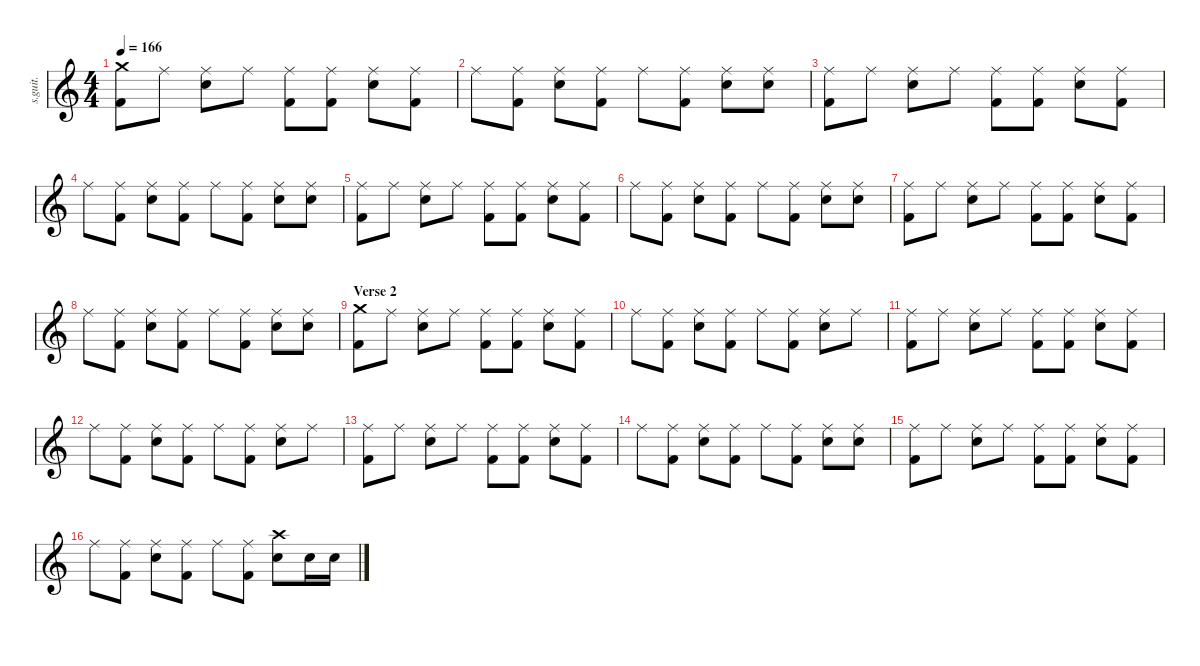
\defaultSystemsLayout 4
\hideDynamics
\bracketExtendMode nobrackets
\track ("Phil Selway" "s.guit.") {instrument percussion}
\staff {score}
\articulation defaults
\ts (4 4)
\tempo 166
\clef g2
\ks c
("Crash medium (hit)" "Kick (hit) 2").8{lyrics (0 "") lyrics (1 "") lyrics (2 "") lyrics (3 "") lyrics (4 "") dy mf} "Ride (middle)".8{lyrics (0 "") lyrics (1 "") lyrics (2 "") lyrics (3 "") lyrics (4 "") dy f} ("Ride (middle)" "Electric Snare (hit)").8{lyrics (0 "") lyrics (1 "") lyrics (2 "") lyrics (3 "") lyrics (4 "")} "Ride (middle)".8{lyrics (0 "") lyrics (1 "") lyrics (2 "") lyrics (3 "") lyrics (4 "")} ("Ride (middle)" "Kick (hit) 2").8{lyrics (0 "") lyrics (1 "") lyrics (2 "") lyrics (3 "") lyrics (4 "")} ("Ride (middle)" "Kick (hit) 2").8{lyrics (0 "") lyrics (1 "") lyrics (2 "") lyrics (3 "") lyrics (4 "")} ("Ride (middle)" "Electric Snare (hit)").8{lyrics (0 "") lyrics (1 "") lyrics (2 "") lyrics (3 "") lyrics (4 "")} ("Ride (middle)" "Kick (hit) 2").8{lyrics (0 "") lyrics (1 "") lyrics (2 "") lyrics (3 "") lyrics (4 "")} |
"Ride (middle)".8{lyrics (0 "") lyrics (1 "") lyrics (2 "") lyrics (3 "") lyrics (4 "")} ("Ride (middle)" "Kick (hit) 2").8{lyrics (0 "") lyrics (1 "") lyrics (2 "") lyrics (3 "") lyrics (4 "")} ("Ride (middle)" "Electric Snare (hit)").8{lyrics (0 "") lyrics (1 "") lyrics (2 "") lyrics (3 "") lyrics (4 "")} ("Ride (middle)" "Kick (hit) 2").8{lyrics (0 "") lyrics (1 "") lyrics (2 "") lyrics (3 "") lyrics (4 "")} "Ride (middle)".8{lyrics (0 "") lyrics (1 "") lyrics (2 "") lyrics (3 "") lyrics (4 "")} ("Ride (middle)" "Kick (hit) 2").8{lyrics (0 "") lyrics (1 "") lyrics (2 "") lyrics (3 "") lyrics (4 "")} ("Ride (middle)" "Electric Snare (hit)").8{lyrics (0 "") lyrics (1 "") lyrics (2 "") lyrics (3 "") lyrics (4 "")} ("Ride (middle)" "Electric Snare (hit)").8{lyrics (0 "") lyrics (1 "") lyrics (2 "") lyrics (3 "") lyrics (4 "")} |
("Ride (middle)" "Kick (hit) 2").8{lyrics (0 "") lyrics (1 "") lyrics (2 "") lyrics (3 "") lyrics (4 "")} "Ride (middle)".8{lyrics (0 "") lyrics (1 "") lyrics (2 "") lyrics (3 "") lyrics (4 "")} ("Ride (middle)" "Electric Snare (hit)").8{lyrics (0 "") lyrics (1 "") lyrics (2 "") lyrics (3 "") lyrics (4 "")} "Ride (middle)".8{lyrics (0 "") lyrics (1 "") lyrics (2 "") lyrics (3 "") lyrics (4 "")} ("Ride (middle)" "Kick (hit) 2").8{lyrics (0 "") lyrics (1 "") lyrics (2 "") lyrics (3 "") lyrics (4 "")} ("Ride (middle)" "Kick (hit) 2").8{lyrics (0 "") lyrics (1 "") lyrics (2 "") lyrics (3 "") lyrics (4 "")} ("Ride (middle)" "Electric Snare (hit)").8{lyrics (0 "") lyrics (1 "") lyrics (2 "") lyrics (3 "") lyrics (4 "")} ("Ride (middle)" "Kick (hit) 2").8{lyrics (0 "") lyrics (1 "") lyrics (2 "") lyrics (3 "") lyrics (4 "")} |
"Ride (middle)".8{lyrics (0 "") lyrics (1 "") lyrics (2 "") lyrics (3 "") lyrics (4 "")} ("Ride (middle)" "Kick (hit) 2").8{lyrics (0 "") lyrics (1 "") lyrics (2 "") lyrics (3 "") lyrics (4 "")} ("Ride (middle)" "Electric Snare (hit)").8{lyrics (0 "") lyrics (1 "") lyrics (2 "") lyrics (3 "") lyrics (4 "")} ("Ride (middle)" "Kick (hit) 2").8{lyrics (0 "") lyrics (1 "") lyrics (2 "") lyrics (3 "") lyrics (4 "")} "Ride (middle)".8{lyrics (0 "") lyrics (1 "") lyrics (2 "") lyrics (3 "") lyrics (4 "")} ("Ride (middle)" "Kick (hit) 2").8{lyrics (0 "") lyrics (1 "") lyrics (2 "") lyrics (3 "") lyrics (4 "")} ("Ride (middle)" "Electric Snare (hit)").8{lyrics (0 "") lyrics (1 "") lyrics (2 "") lyrics (3 "") lyrics (4 "")} ("Ride (middle)" "Electric Snare (hit)").8{lyrics (0 "") lyrics (1 "") lyrics (2 "") lyrics (3 "") lyrics (4 "")} |
("Ride (middle)" "Kick (hit) 2").8{lyrics (0 "") lyrics (1 "") lyrics (2 "") lyrics (3 "") lyrics (4 "")} "Ride (middle)".8{lyrics (0 "") lyrics (1 "") lyrics (2 "") lyrics (3 "") lyrics (4 "")} ("Ride (middle)" "Electric Snare (hit)").8{lyrics (0 "") lyrics (1 "") lyrics (2 "") lyrics (3 "") lyrics (4 "")} "Ride (middle)".8{lyrics (0 "") lyrics (1 "") lyrics (2 "") lyrics (3 "") lyrics (4 "")} ("Ride (middle)" "Kick (hit) 2").8{lyrics (0 "") lyrics (1 "") lyrics (2 "") lyrics (3 "") lyrics (4 "")} ("Ride (middle)" "Kick (hit) 2").8{lyrics (0 "") lyrics (1 "") lyrics (2 "") lyrics (3 "") lyrics (4 "")} ("Ride (middle)" "Electric Snare (hit)").8{lyrics (0 "") lyrics (1 "") lyrics (2 "") lyrics (3 "") lyrics (4 "")} ("Ride (middle)" "Kick (hit) 2").8{lyrics (0 "") lyrics (1 "") lyrics (2 "") lyrics (3 "") lyrics (4 "")} |
"Ride (middle)".8{lyrics (0 "") lyrics (1 "") lyrics (2 "") lyrics (3 "") lyrics (4 "")} ("Ride (middle)" "Kick (hit) 2").8{lyrics (0 "") lyrics (1 "") lyrics (2 "") lyrics (3 "") lyrics (4 "")} ("Ride (middle)" "Electric Snare (hit)").8{lyrics (0 "") lyrics (1 "") lyrics (2 "") lyrics (3 "") lyrics (4 "")} ("Ride (middle)" "Kick (hit) 2").8{lyrics (0 "") lyrics (1 "") lyrics (2 "") lyrics (3 "") lyrics (4 "")} "Ride (middle)".8{lyrics (0 "") lyrics (1 "") lyrics (2 "") lyrics (3 "") lyrics (4 "")} ("Ride (middle)" "Kick (hit) 2").8{lyrics (0 "") lyrics (1 "") lyrics (2 "") lyrics (3 "") lyrics (4 "")} ("Ride (middle)" "Electric Snare (hit)").8{lyrics (0 "") lyrics (1 "") lyrics (2 "") lyrics (3 "") lyrics (4 "")} ("Ride (middle)" "Electric Snare (hit)").8{lyrics (0 "") lyrics (1 "") lyrics (2 "") lyrics (3 "") lyrics (4 "")} |
("Ride (middle)" "Kick (hit) 2").8{lyrics (0 "") lyrics (1 "") lyrics (2 "") lyrics (3 "") lyrics (4 "")} "Ride (middle)".8{lyrics (0 "") lyrics (1 "") lyrics (2 "") lyrics (3 "") lyrics (4 "")} ("Ride (middle)" "Electric Snare (hit)").8{lyrics (0 "") lyrics (1 "") lyrics (2 "") lyrics (3 "") lyrics (4 "")} "Ride (middle)".8{lyrics (0 "") lyrics (1 "") lyrics (2 "") lyrics (3 "") lyrics (4 "")} ("Ride (middle)" "Kick (hit) 2").8{lyrics (0 "") lyrics (1 "") lyrics (2 "") lyrics (3 "") lyrics (4 "")} ("Ride (middle)" "Kick (hit) 2").8{lyrics (0 "") lyrics (1 "") lyrics (2 "") lyrics (3 "") lyrics (4 "")} ("Ride (middle)" "Electric Snare (hit)").8{lyrics (0 "") lyrics (1 "") lyrics (2 "") lyrics (3 "") lyrics (4 "")} ("Ride (middle)" "Kick (hit) 2").8{lyrics (0 "") lyrics (1 "") lyrics (2 "") lyrics (3 "") lyrics (4 "")} |
"Ride (middle)".8{lyrics (0 "") lyrics (1 "") lyrics (2 "") lyrics (3 "") lyrics (4 "")} ("Ride (middle)" "Kick (hit) 2").8{lyrics (0 "") lyrics (1 "") lyrics (2 "") lyrics (3 "") lyrics (4 "")} ("Ride (middle)" "Electric Snare (hit)").8{lyrics (0 "") lyrics (1 "") lyrics (2 "") lyrics (3 "") lyrics (4 "")} ("Ride (middle)" "Kick (hit) 2").8{lyrics (0 "") lyrics (1 "") lyrics (2 "") lyrics (3 "") lyrics (4 "")} "Ride (middle)".8{lyrics (0 "") lyrics (1 "") lyrics (2 "") lyrics (3 "") lyrics (4 "")} ("Ride (middle)" "Kick (hit) 2").8{lyrics (0 "") lyrics (1 "") lyrics (2 "") lyrics (3 "") lyrics (4 "")} ("Ride (middle)" "Electric Snare (hit)").8{lyrics (0 "") lyrics (1 "") lyrics (2 "") lyrics (3 "") lyrics (4 "")} ("Ride (middle)" "Electric Snare (hit)").8{lyrics (0 "") lyrics (1 "") lyrics (2 "") lyrics (3 "") lyrics (4 "")} |
\section ("" "Verse 2")
("Crash medium (hit)" "Kick (hit) 2").8{lyrics (0 "") lyrics (1 "") lyrics (2 "") lyrics (3 "") lyrics (4 "")} "Ride (middle)".8{lyrics (0 "") lyrics (1 "") lyrics (2 "") lyrics (3 "") lyrics (4 "")} ("Ride (middle)" "Electric Snare (hit)").8{lyrics (0 "") lyrics (1 "") lyrics (2 "") lyrics (3 "") lyrics (4 "")} "Ride (middle)".8{lyrics (0 "") lyrics (1 "") lyrics (2 "") lyrics (3 "") lyrics (4 "")} ("Ride (middle)" "Kick (hit) 2").8{lyrics (0 "") lyrics (1 "") lyrics (2 "") lyrics (3 "") lyrics (4 "")} ("Ride (middle)" "Kick (hit) 2").8{lyrics (0 "") lyrics (1 "") lyrics (2 "") lyrics (3 "") lyrics (4 "")} ("Ride (middle)" "Electric Snare (hit)").8{lyrics (0 "") lyrics (1 "") lyrics (2 "") lyrics (3 "") lyrics (4 "")} ("Ride (middle)" "Kick (hit) 2").8{lyrics (0 "") lyrics (1 "") lyrics (2 "") lyrics (3 "") lyrics (4 "")} |
"Ride (middle)".8{lyrics (0 "") lyrics (1 "") lyrics (2 "") lyrics (3 "") lyrics (4 "")} ("Ride (middle)" "Kick (hit) 2").8{lyrics (0 "") lyrics (1 "") lyrics (2 "") lyrics (3 "") lyrics (4 "")} ("Ride (middle)" "Electric Snare (hit)").8{lyrics (0 "") lyrics (1 "") lyrics (2 "") lyrics (3 "") lyrics (4 "")} ("Ride (middle)" "Kick (hit) 2").8{lyrics (0 "") lyrics (1 "") lyrics (2 "") lyrics (3 "") lyrics (4 "")} "Ride (middle)".8{lyrics (0 "") lyrics (1 "") lyrics (2 "") lyrics (3 "") lyrics (4 "")} ("Ride (middle)" "Kick (hit) 2").8{lyrics (0 "") lyrics (1 "") lyrics (2 "") lyrics (3 "") lyrics (4 "")} ("Ride (middle)" "Electric Snare (hit)").8{lyrics (0 "") lyrics (1 "") lyrics (2 "") lyrics (3 "") lyrics (4 "")} "Ride (middle)".8{lyrics (0 "") lyrics (1 "") lyrics (2 "") lyrics (3 "") lyrics (4 "")} |
("Ride (middle)" "Kick (hit) 2").8{lyrics (0 "") lyrics (1 "") lyrics (2 "") lyrics (3 "") lyrics (4 "")} "Ride (middle)".8{lyrics (0 "") lyrics (1 "") lyrics (2 "") lyrics (3 "") lyrics (4 "")} ("Ride (middle)" "Electric Snare (hit)").8{lyrics (0 "") lyrics (1 "") lyrics (2 "") lyrics (3 "") lyrics (4 "")} "Ride (middle)".8{lyrics (0 "") lyrics (1 "") lyrics (2 "") lyrics (3 "") lyrics (4 "")} ("Ride (middle)" "Kick (hit) 2").8{lyrics (0 "") lyrics (1 "") lyrics (2 "") lyrics (3 "") lyrics (4 "")} ("Ride (middle)" "Kick (hit) 2").8{lyrics (0 "") lyrics (1 "") lyrics (2 "") lyrics (3 "") lyrics (4 "")} ("Ride (middle)" "Electric Snare (hit)").8{lyrics (0 "") lyrics (1 "") lyrics (2 "") lyrics (3 "") lyrics (4 "")} ("Ride (middle)" "Kick (hit) 2").8{lyrics (0 "") lyrics (1 "") lyrics (2 "") lyrics (3 "") lyrics (4 "")} |
"Ride (middle)".8{lyrics (0 "") lyrics (1 "") lyrics (2 "") lyrics (3 "") lyrics (4 "")} ("Ride (middle)" "Kick (hit) 2").8{lyrics (0 "") lyrics (1 "") lyrics (2 "") lyrics (3 "") lyrics (4 "")} ("Ride (middle)" "Electric Snare (hit)").8{lyrics (0 "") lyrics (1 "") lyrics (2 "") lyrics (3 "") lyrics (4 "")} ("Ride (middle)" "Kick (hit) 2").8{lyrics (0 "") lyrics (1 "") lyrics (2 "") lyrics (3 "") lyrics (4 "")} "Ride (middle)".8{lyrics (0 "") lyrics (1 "") lyrics (2 "") lyrics (3 "") lyrics (4 "")} ("Ride (middle)" "Kick (hit) 2").8{lyrics (0 "") lyrics (1 "") lyrics (2 "") lyrics (3 "") lyrics (4 "")} ("Ride (middle)" "Electric Snare (hit)").8{lyrics (0 "") lyrics (1 "") lyrics (2 "") lyrics (3 "") lyrics (4 "")} "Ride (middle)".8{lyrics (0 "") lyrics (1 "") lyrics (2 "") lyrics (3 "") lyrics (4 "")} |
("Ride (middle)" "Kick (hit) 2").8{lyrics (0 "") lyrics (1 "") lyrics (2 "") lyrics (3 "") lyrics (4 "")} "Ride (middle)".8{lyrics (0 "") lyrics (1 "") lyrics (2 "") lyrics (3 "") lyrics (4 "")} ("Ride (middle)" "Electric Snare (hit)").8{lyrics (0 "") lyrics (1 "") lyrics (2 "") lyrics (3 "") lyrics (4 "")} "Ride (middle)".8{lyrics (0 "") lyrics (1 "") lyrics (2 "") lyrics (3 "") lyrics (4 "")} ("Ride (middle)" "Kick (hit) 2").8{lyrics (0 "") lyrics (1 "") lyrics (2 "") lyrics (3 "") lyrics (4 "")} ("Ride (middle)" "Kick (hit) 2").8{lyrics (0 "") lyrics (1 "") lyrics (2 "") lyrics (3 "") lyrics (4 "")} ("Ride (middle)" "Electric Snare (hit)").8{lyrics (0 "") lyrics (1 "") lyrics (2 "") lyrics (3 "") lyrics (4 "")} ("Ride (middle)" "Kick (hit) 2").8{lyrics (0 "") lyrics (1 "") lyrics (2 "") lyrics (3 "") lyrics (4 "")} |
"Ride (middle)".8{lyrics (0 "") lyrics (1 "") lyrics (2 "") lyrics (3 "") lyrics (4 "")} ("Ride (middle)" "Kick (hit) 2").8{lyrics (0 "") lyrics (1 "") lyrics (2 "") lyrics (3 "") lyrics (4 "")} ("Ride (middle)" "Electric Snare (hit)").8{lyrics (0 "") lyrics (1 "") lyrics (2 "") lyrics (3 "") lyrics (4 "")} ("Ride (middle)" "Kick (hit) 2").8{lyrics (0 "") lyrics (1 "") lyrics (2 "") lyrics (3 "") lyrics (4 "")} "Ride (middle)".8{lyrics (0 "") lyrics (1 "") lyrics (2 "") lyrics (3 "") lyrics (4 "")} ("Ride (middle)" "Kick (hit) 2").8{lyrics (0 "") lyrics (1 "") lyrics (2 "") lyrics (3 "") lyrics (4 "")} ("Ride (middle)" "Electric Snare (hit)").8{lyrics (0 "") lyrics (1 "") lyrics (2 "") lyrics (3 "") lyrics (4 "")} ("Ride (middle)" "Electric Snare (hit)").8{lyrics (0 "") lyrics (1 "") lyrics (2 "") lyrics (3 "") lyrics (4 "")} |
("Ride (middle)" "Kick (hit) 2").8{lyrics (0 "") lyrics (1 "") lyrics (2 "") lyrics (3 "") lyrics (4 "")} "Ride (middle)".8{lyrics (0 "") lyrics (1 "") lyrics (2 "") lyrics (3 "") lyrics (4 "")} ("Ride (middle)" "Electric Snare (hit)").8{lyrics (0 "") lyrics (1 "") lyrics (2 "") lyrics (3 "") lyrics (4 "")} "Ride (middle)".8{lyrics (0 "") lyrics (1 "") lyrics (2 "") lyrics (3 "") lyrics (4 "")} ("Ride (middle)" "Kick (hit) 2").8{lyrics (0 "") lyrics (1 "") lyrics (2 "") lyrics (3 "") lyrics (4 "")} ("Ride (middle)" "Kick (hit) 2").8{lyrics (0 "") lyrics (1 "") lyrics (2 "") lyrics (3 "") lyrics (4 "")} ("Ride (middle)" "Electric Snare (hit)").8{lyrics (0 "") lyrics (1 "") lyrics (2 "") lyrics (3 "") lyrics (4 "")} ("Ride (middle)" "Kick (hit) 2").8{lyrics (0 "") lyrics (1 "") lyrics (2 "") lyrics (3 "") lyrics (4 "")} |
"Ride (middle)".8{lyrics (0 "") lyrics (1 "") lyrics (2 "") lyrics (3 "") lyrics (4 "")} ("Ride (middle)" "Kick (hit) 2").8{lyrics (0 "") lyrics (1 "") lyrics (2 "") lyrics (3 "") lyrics (4 "")} ("Ride (middle)" "Electric Snare (hit)").8{lyrics (0 "") lyrics (1 "") lyrics (2 "") lyrics (3 "") lyrics (4 "")} ("Ride (middle)" "Kick (hit) 2").8{lyrics (0 "") lyrics (1 "") lyrics (2 "") lyrics (3 "") lyrics (4 "")} "Ride (middle)".8{lyrics (0 "") lyrics (1 "") lyrics (2 "") lyrics (3 "") lyrics (4 "")} ("Ride (middle)" "Kick (hit) 2").8{lyrics (0 "") lyrics (1 "") lyrics (2 "") lyrics (3 "") lyrics (4 "")} ("Crash high (hit)" "Electric Snare (hit)").8{lyrics (0 "") lyrics (1 "") lyrics (2 "") lyrics (3 "") lyrics (4 "")} "Snare (hit) 2".16{lyrics (0 "") lyrics (1 "") lyrics (2 "") lyrics (3 "") lyrics (4 "") dy mf} "Snare (hit) 2".16{lyrics (0 "") lyrics (1 "") lyrics (2 "") lyrics (3 "") lyrics (4 "")}
